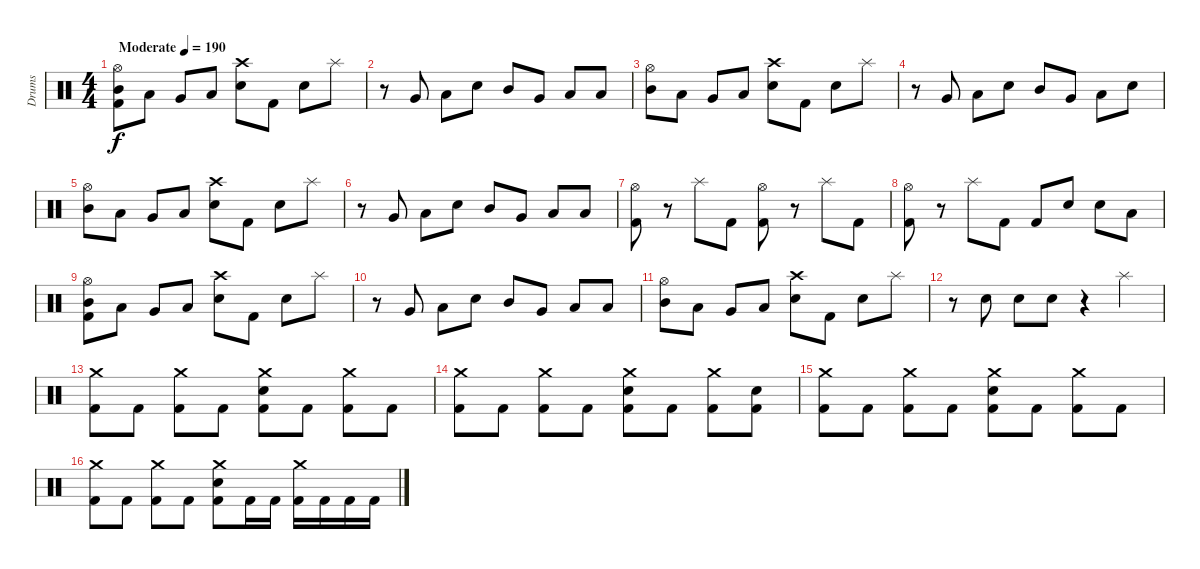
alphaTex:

\track ("Drums" "Drums") {instrument percussion}
\staff {score}
\articulation defaults
\ts (4 4)
\tempo (190 "Moderate")
\clef neutral
\ks c
("Hi-Hat (open)" "Mid Tom (hit)" "Kick (hit) 2").8{dy f} "Low Tom (hit)".8 "Very Low Tom (hit)".8 "Low Floor Tom (hit)".8 ("Crash high (hit)" "Electric Snare (hit)").8 "Kick (hit) 2".8 "Electric Snare (hit)".8 "Splash (hit)".8 |
r.8 "Very Low Tom (hit)".8 "Low Floor Tom (hit)".8 "Electric Snare (hit)".8 "Mid Tom (hit)".8 "Very Low Tom (hit)".8 "Low Tom (hit)".8 "Low Floor Tom (hit)".8 |
("Hi-Hat (open)" "Mid Tom (hit)").8 "Low Tom (hit)".8 "Very Low Tom (hit)".8 "Low Floor Tom (hit)".8 ("Crash high (hit)" "Electric Snare (hit)").8 "Kick (hit) 2".8 "Electric Snare (hit)".8 "Splash (hit)".8 |
r.8 "Very Low Tom (hit)".8 "Low Floor Tom (hit)".8 "Electric Snare (hit)".8 "Mid Tom (hit)".8 "Very Low Tom (hit)".8 "Low Tom (hit)".8 "Electric Snare (hit)".8 |
("Hi-Hat (open)" "Mid Tom (hit)").8 "Low Tom (hit)".8 "Very Low Tom (hit)".8 "Low Floor Tom (hit)".8 ("Crash high (hit)" "Electric Snare (hit)").8 "Kick (hit) 2".8 "Electric Snare (hit)".8 "Splash (hit)".8 |
r.8 "Very Low Tom (hit)".8 "Low Floor Tom (hit)".8 "Electric Snare (hit)".8 "Mid Tom (hit)".8 "Very Low Tom (hit)".8 "Low Tom (hit)".8 "Low Floor Tom (hit)".8 |
("Hi-Hat (open)" "Kick (hit) 2").8 r.8 "Splash (hit)".8 "Kick (hit) 2".8 ("Hi-Hat (open)" "Kick (hit) 2").8 r.8 "Splash (hit)".8 "Kick (hit) 2".8 |
("Hi-Hat (open)" "Kick (hit) 2").8 r.8 "Splash (hit)".8 "Kick (hit) 2".8 "Kick (hit) 2".8 "Electric Snare (hit)".8 "Electric Snare (hit)".8 "Low Tom (hit)".8 |
("Hi-Hat (open)" "Mid Tom (hit)" "Kick (hit) 2").8 "Low Tom (hit)".8 "Very Low Tom (hit)".8 "Low Floor Tom (hit)".8 ("Crash high (hit)" "Electric Snare (hit)").8 "Kick (hit) 2".8 "Electric Snare (hit)".8 "Splash (hit)".8 |
r.8 "Very Low Tom (hit)".8 "Low Floor Tom (hit)".8 "Electric Snare (hit)".8 "Mid Tom (hit)".8 "Very Low Tom (hit)".8 "Low Tom (hit)".8 "Low Floor Tom (hit)".8 |
("Hi-Hat (open)" "Mid Tom (hit)").8 "Low Tom (hit)".8 "Very Low Tom (hit)".8 "Low Floor Tom (hit)".8 ("Crash high (hit)" "Electric Snare (hit)").8 "Kick (hit) 2".8 "Electric Snare (hit)".8 "Splash (hit)".8 |
r.8 "Electric Snare (hit)".8 "Electric Snare (hit)".8 "Electric Snare (hit)".8 r.4 "Splash (hit)".4 |
("Crash medium (hit)" "Kick (hit) 2").8 "Kick (hit) 2".8 ("Crash medium (hit)" "Kick (hit) 2").8 "Kick (hit) 2".8 ("Crash medium (hit)" "Electric Snare (hit)" "Kick (hit) 2").8 "Kick (hit) 2".8 ("Crash medium (hit)" "Kick (hit) 2").8 "Kick (hit) 2".8 |
("Crash medium (hit)" "Kick (hit) 2").8 "Kick (hit) 2".8 ("Crash medium (hit)" "Kick (hit) 2").8 "Kick (hit) 2".8 ("Crash medium (hit)" "Electric Snare (hit)" "Kick (hit) 2").8 "Kick (hit) 2".8 ("Crash medium (hit)" "Kick (hit) 2").8 ("Electric Snare (hit)" "Kick (hit) 2").8 |
("Crash medium (hit)" "Kick (hit) 2").8 "Kick (hit) 2".8 ("Crash medium (hit)" "Kick (hit) 2").8 "Kick (hit) 2".8 ("Crash medium (hit)" "Electric Snare (hit)" "Kick (hit) 2").8 "Kick (hit) 2".8 ("Crash medium (hit)" "Kick (hit) 2").8 "Kick (hit) 2".8 |
("Crash medium (hit)" "Kick (hit) 2").8 "Kick (hit) 2".8 ("Crash medium (hit)" "Kick (hit) 2").8 "Kick (hit) 2".8 ("Crash medium (hit)" "Electric Snare (hit)" "Kick (hit) 2").8 "Kick (hit) 2".16 "Kick (hit) 2".16 ("Crash medium (hit)" "Kick (hit) 2").16 "Kick (hit) 2".16 "Kick (hit) 2".16 "Kick (hit) 2".16
